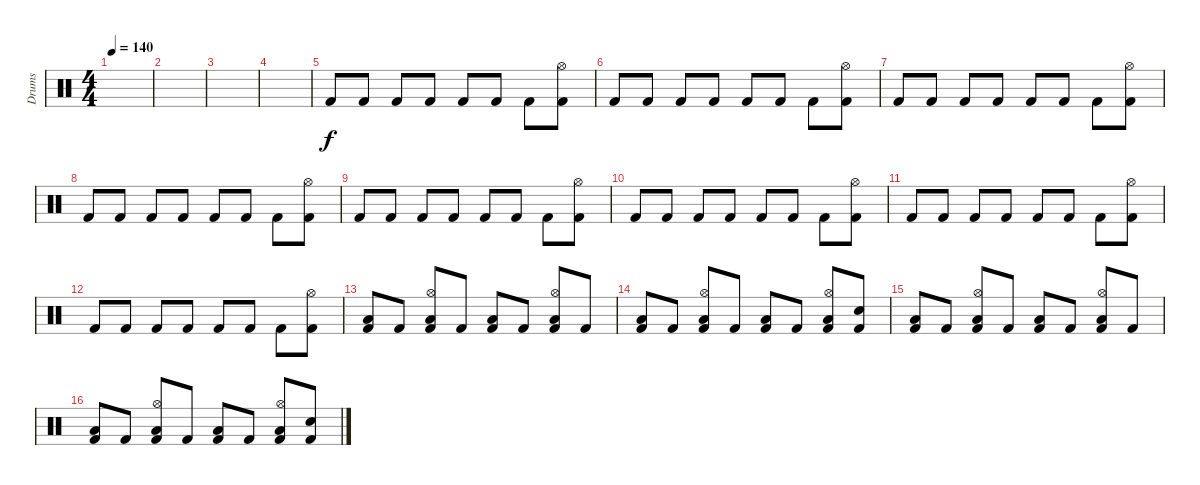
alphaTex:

\track ("Drums" "Drums") {instrument percussion}
\staff {score}
\articulation defaults
\ts (4 4)
\tempo 140
\clef neutral
\ks c
|
|
|
|
"Kick (hit) 2".8 "Kick (hit) 2".8 "Kick (hit) 2".8 "Kick (hit) 2".8 "Kick (hit) 2".8 "Kick (hit) 2".8 "Kick (hit) 2".8 ("Hi-Hat (open)" "Kick (hit) 2").8 |
"Kick (hit) 2".8 "Kick (hit) 2".8 "Kick (hit) 2".8 "Kick (hit) 2".8 "Kick (hit) 2".8 "Kick (hit) 2".8 "Kick (hit) 2".8 ("Hi-Hat (open)" "Kick (hit) 2").8 |
"Kick (hit) 2".8 "Kick (hit) 2".8 "Kick (hit) 2".8 "Kick (hit) 2".8 "Kick (hit) 2".8 "Kick (hit) 2".8 "Kick (hit) 2".8 ("Hi-Hat (open)" "Kick (hit) 2").8 |
"Kick (hit) 2".8 "Kick (hit) 2".8 "Kick (hit) 2".8 "Kick (hit) 2".8 "Kick (hit) 2".8 "Kick (hit) 2".8 "Kick (hit) 2".8 ("Hi-Hat (open)" "Kick (hit) 2").8 |
"Kick (hit) 2".8 "Kick (hit) 2".8 "Kick (hit) 2".8 "Kick (hit) 2".8 "Kick (hit) 2".8 "Kick (hit) 2".8 "Kick (hit) 2".8 ("Hi-Hat (open)" "Kick (hit) 2").8 |
"Kick (hit) 2".8 "Kick (hit) 2".8 "Kick (hit) 2".8 "Kick (hit) 2".8 "Kick (hit) 2".8 "Kick (hit) 2".8 "Kick (hit) 2".8 ("Hi-Hat (open)" "Kick (hit) 2").8 |
"Kick (hit) 2".8 "Kick (hit) 2".8 "Kick (hit) 2".8 "Kick (hit) 2".8 "Kick (hit) 2".8 "Kick (hit) 2".8 "Kick (hit) 2".8 ("Hi-Hat (open)" "Kick (hit) 2").8 |
"Kick (hit) 2".8 "Kick (hit) 2".8 "Kick (hit) 2".8 "Kick (hit) 2".8 "Kick (hit) 2".8 "Kick (hit) 2".8 "Kick (hit) 2".8 ("Hi-Hat (open)" "Kick (hit) 2").8 |
("Low Floor Tom (hit)" "Kick (hit) 2").8 "Kick (hit) 2".8 ("Hi-Hat (open)" "Low Floor Tom (hit)" "Kick (hit) 2").8 "Kick (hit) 2".8 ("Low Floor Tom (hit)" "Kick (hit) 2").8 "Kick (hit) 2".8 ("Hi-Hat (open)" "Low Floor Tom (hit)" "Kick (hit) 2").8 "Kick (hit) 2".8 |
("Low Floor Tom (hit)" "Kick (hit) 2").8 "Kick (hit) 2".8 ("Hi-Hat (open)" "Low Floor Tom (hit)" "Kick (hit) 2").8 "Kick (hit) 2".8 ("Low Floor Tom (hit)" "Kick (hit) 2").8 "Kick (hit) 2".8 ("Hi-Hat (open)" "Low Floor Tom (hit)" "Kick (hit) 2").8 ("Electric Snare (hit)" "Kick (hit) 2").8 |
("Low Floor Tom (hit)" "Kick (hit) 2").8 "Kick (hit) 2".8 ("Hi-Hat (open)" "Low Floor Tom (hit)" "Kick (hit) 2").8 "Kick (hit) 2".8 ("Low Floor Tom (hit)" "Kick (hit) 2").8 "Kick (hit) 2".8 ("Hi-Hat (open)" "Low Floor Tom (hit)" "Kick (hit) 2").8 "Kick (hit) 2".8 |
("Low Floor Tom (hit)" "Kick (hit) 2").8 "Kick (hit) 2".8 ("Hi-Hat (open)" "Low Floor Tom (hit)" "Kick (hit) 2").8 "Kick (hit) 2".8 ("Low Floor Tom (hit)" "Kick (hit) 2").8 "Kick (hit) 2".8 ("Hi-Hat (open)" "Low Floor Tom (hit)" "Kick (hit) 2").8 ("Electric Snare (hit)" "Kick (hit) 2").8
